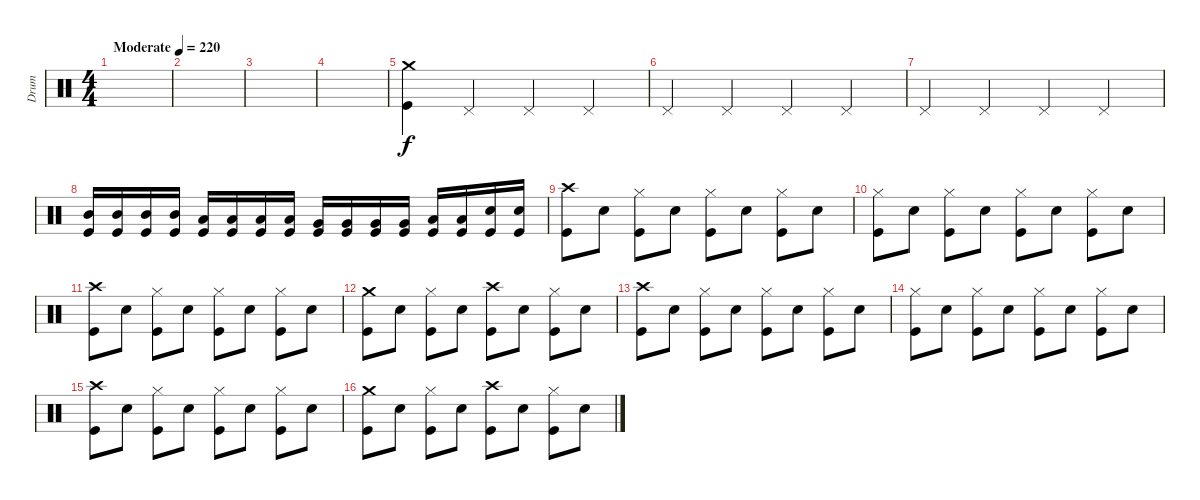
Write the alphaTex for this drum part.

\track ("Drum" "Drum") {instrument percussion}
\staff {score}
\articulation defaults
\ts (4 4)
\tempo (220 "Moderate")
\clef neutral
\ks c
|
|
|
|
("Crash medium (hit)" "Kick (hit)").4 "Pedal Hi-Hat (hit)".4 "Pedal Hi-Hat (hit)".4 "Pedal Hi-Hat (hit)".4 |
"Pedal Hi-Hat (hit)".4 "Pedal Hi-Hat (hit)".4 "Pedal Hi-Hat (hit)".4 "Pedal Hi-Hat (hit)".4 |
"Pedal Hi-Hat (hit)".4 "Pedal Hi-Hat (hit)".4 "Pedal Hi-Hat (hit)".4 "Pedal Hi-Hat (hit)".4 |
("Mid Tom (hit)" "Kick (hit)").16 ("Mid Tom (hit)" "Kick (hit)").16 ("Mid Tom (hit)" "Kick (hit)").16 ("Mid Tom (hit)" "Kick (hit)").16 ("Low Tom (hit)" "Kick (hit)").16 ("Low Tom (hit)" "Kick (hit)").16 ("Low Tom (hit)" "Kick (hit)").16 ("Low Tom (hit)" "Kick (hit)").16 ("Very Low Tom (hit)" "Kick (hit)").16 ("Very Low Tom (hit)" "Kick (hit)").16 ("Very Low Tom (hit)" "Kick (hit)").16 ("Very Low Tom (hit)" "Kick (hit)").16 ("Low Floor Tom (hit)" "Kick (hit)").16 ("Low Floor Tom (hit)" "Kick (hit)").16 ("Snare (hit) 2" "Kick (hit)").16 ("Snare (hit) 2" "Kick (hit)").16 |
("Crash high (hit)" "Kick (hit)").8 "Snare (hit) 2".8 ("Hi-Hat (closed)" "Kick (hit)").8 "Snare (hit) 2".8 ("Hi-Hat (closed)" "Kick (hit)").8 "Snare (hit) 2".8 ("Hi-Hat (closed)" "Kick (hit)").8 "Snare (hit) 2".8 |
("Hi-Hat (closed)" "Kick (hit)").8 "Snare (hit) 2".8 ("Hi-Hat (closed)" "Kick (hit)").8 "Snare (hit) 2".8 ("Hi-Hat (closed)" "Kick (hit)").8 "Snare (hit) 2".8 ("Hi-Hat (closed)" "Kick (hit)").8 "Snare (hit) 2".8 |
("Crash high (hit)" "Kick (hit)").8 "Snare (hit) 2".8 ("Hi-Hat (closed)" "Kick (hit)").8 "Snare (hit) 2".8 ("Hi-Hat (closed)" "Kick (hit)").8 "Snare (hit) 2".8 ("Hi-Hat (closed)" "Kick (hit)").8 "Snare (hit) 2".8 |
("Crash medium (hit)" "Kick (hit)").8 "Snare (hit) 2".8 ("Hi-Hat (closed)" "Kick (hit)").8 "Snare (hit) 2".8 ("Crash high (hit)" "Kick (hit)").8 "Snare (hit) 2".8 ("Hi-Hat (closed)" "Kick (hit)").8 "Snare (hit) 2".8 |
("Crash high (hit)" "Kick (hit)").8 "Snare (hit) 2".8 ("Hi-Hat (closed)" "Kick (hit)").8 "Snare (hit) 2".8 ("Hi-Hat (closed)" "Kick (hit)").8 "Snare (hit) 2".8 ("Hi-Hat (closed)" "Kick (hit)").8 "Snare (hit) 2".8 |
("Hi-Hat (closed)" "Kick (hit)").8 "Snare (hit) 2".8 ("Hi-Hat (closed)" "Kick (hit)").8 "Snare (hit) 2".8 ("Hi-Hat (closed)" "Kick (hit)").8 "Snare (hit) 2".8 ("Hi-Hat (closed)" "Kick (hit)").8 "Snare (hit) 2".8 |
("Crash high (hit)" "Kick (hit)").8 "Snare (hit) 2".8 ("Hi-Hat (closed)" "Kick (hit)").8 "Snare (hit) 2".8 ("Hi-Hat (closed)" "Kick (hit)").8 "Snare (hit) 2".8 ("Hi-Hat (closed)" "Kick (hit)").8 "Snare (hit) 2".8 |
("Crash medium (hit)" "Kick (hit)").8 "Snare (hit) 2".8 ("Hi-Hat (closed)" "Kick (hit)").8 "Snare (hit) 2".8 ("Crash high (hit)" "Kick (hit)").8 "Snare (hit) 2".8 ("Hi-Hat (closed)" "Kick (hit)").8 "Snare (hit) 2".8
